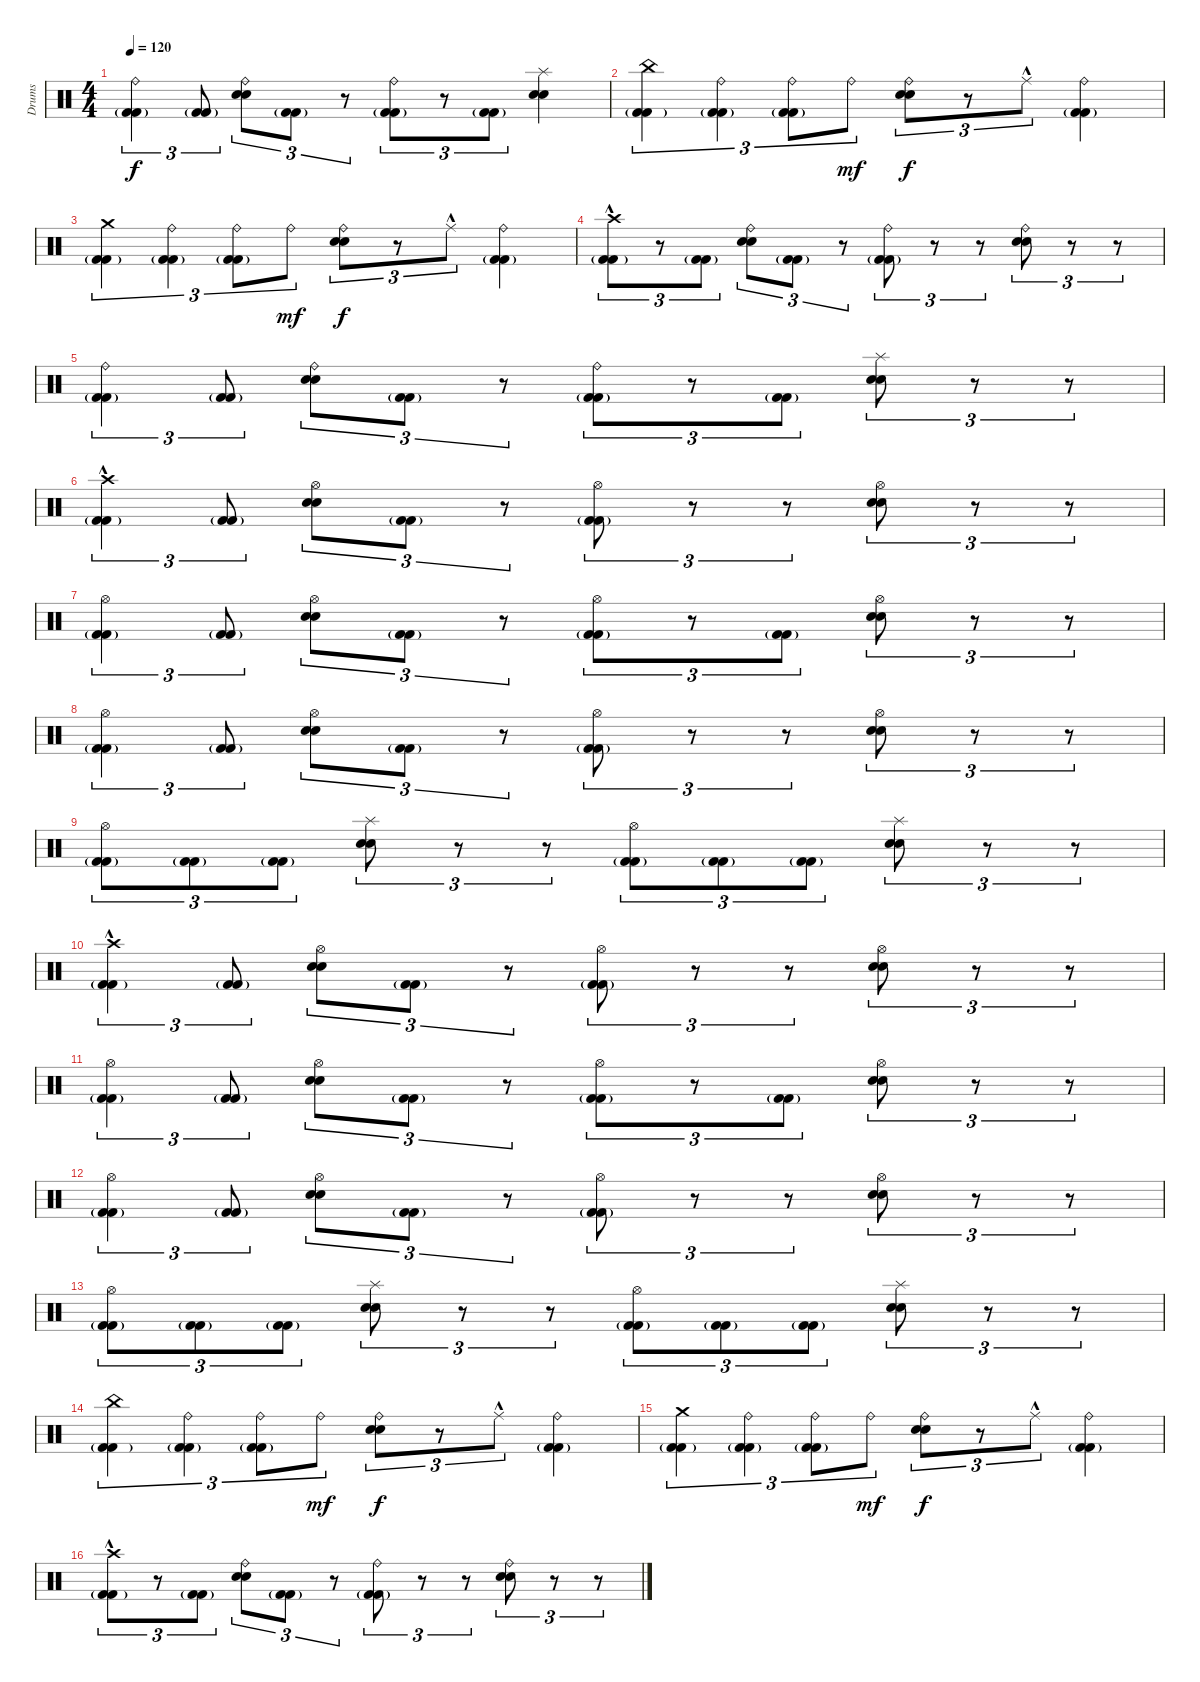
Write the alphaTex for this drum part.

\track ("Drums" "Drums") {instrument percussion}
\staff {score}
\articulation defaults
\ts (4 4)
\tempo 120
\clef neutral
\ks c
("Ride (bell)" "Kick (hit) 2"{g} "Kick (hit) 2").4{tu (3 2) dy f} ("Kick (hit) 2"{g} "Kick (hit) 2").8{tu (3 2)} ("Ride (bell)" "Snare (hit)" "Electric Snare (hit)").8{tu (3 2)} ("Kick (hit) 2"{g} "Kick (hit) 2").8{tu (3 2)} r.8{tu (3 2)} ("Ride (bell)" "Kick (hit) 2"{g} "Kick (hit) 2").8{tu (3 2)} r.8{tu (3 2)} ("Kick (hit) 2"{g} "Kick (hit) 2").8{tu (3 2)} ("Splash (hit)" "Snare (hit)" "Electric Snare (hit)").4 |
("China (hit)" "Kick (hit) 2"{g} "Kick (hit) 2").4{tu (3 2)} ("Ride (bell)" "Kick (hit) 2"{g} "Kick (hit) 2").4{tu (3 2)} ("Ride (bell)" "Kick (hit) 2"{g} "Kick (hit) 2").8{tu (3 2)} "Ride (bell)".8{tu (3 2) dy mf} ("Ride (bell)" "Snare (hit)" "Electric Snare (hit)").8{tu (3 2) dy f} r.8{tu (3 2)} "Ride (middle)"{hac}.8{tu (3 2)} ("Ride (bell)" "Kick (hit) 2"{g} "Kick (hit) 2").4 |
("Crash medium (hit)" "Kick (hit) 2"{g} "Kick (hit) 2").4{tu (3 2)} ("Ride (bell)" "Kick (hit) 2"{g} "Kick (hit) 2").4{tu (3 2)} ("Ride (bell)" "Kick (hit) 2"{g} "Kick (hit) 2").8{tu (3 2)} "Ride (bell)".8{tu (3 2) dy mf} ("Ride (bell)" "Snare (hit)" "Electric Snare (hit)").8{tu (3 2) dy f} r.8{tu (3 2)} "Ride (middle)"{hac}.8{tu (3 2)} ("Ride (bell)" "Kick (hit) 2"{g} "Kick (hit) 2").4 |
("Crash high (hit)"{hac} "Kick (hit) 2"{g} "Kick (hit) 2").8{tu (3 2)} r.8{tu (3 2)} ("Kick (hit) 2"{g} "Kick (hit) 2").8{tu (3 2)} ("Ride (bell)" "Snare (hit)" "Electric Snare (hit)").8{tu (3 2)} ("Kick (hit) 2"{g} "Kick (hit) 2").8{tu (3 2)} r.8{tu (3 2)} ("Ride (bell)" "Kick (hit) 2"{g} "Kick (hit) 2").8{tu (3 2)} r.8{tu (3 2)} r.8{tu (3 2)} ("Ride (bell)" "Snare (hit)" "Electric Snare (hit)").8{tu (3 2)} r.8{tu (3 2)} r.8{tu (3 2)} |
("Ride (bell)" "Kick (hit) 2"{g} "Kick (hit) 2").4{tu (3 2)} ("Kick (hit) 2"{g} "Kick (hit) 2").8{tu (3 2)} ("Ride (bell)" "Snare (hit)" "Electric Snare (hit)").8{tu (3 2)} ("Kick (hit) 2"{g} "Kick (hit) 2").8{tu (3 2)} r.8{tu (3 2)} ("Ride (bell)" "Kick (hit) 2"{g} "Kick (hit) 2").8{tu (3 2)} r.8{tu (3 2)} ("Kick (hit) 2"{g} "Kick (hit) 2").8{tu (3 2)} ("Splash (hit)" "Snare (hit)" "Electric Snare (hit)").8{tu (3 2)} r.8{tu (3 2)} r.8{tu (3 2)} |
("Crash high (hit)"{hac} "Kick (hit) 2"{g} "Kick (hit) 2").4{tu (3 2)} ("Kick (hit) 2"{g} "Kick (hit) 2").8{tu (3 2)} ("Hi-Hat (open)" "Snare (hit)" "Electric Snare (hit)").8{tu (3 2)} ("Kick (hit) 2"{g} "Kick (hit) 2").8{tu (3 2)} r.8{tu (3 2)} ("Hi-Hat (open)" "Kick (hit) 2"{g} "Kick (hit) 2").8{tu (3 2)} r.8{tu (3 2)} r.8{tu (3 2)} ("Hi-Hat (open)" "Snare (hit)" "Electric Snare (hit)").8{tu (3 2)} r.8{tu (3 2)} r.8{tu (3 2)} |
("Hi-Hat (open)" "Kick (hit) 2"{g} "Kick (hit) 2").4{tu (3 2)} ("Kick (hit) 2"{g} "Kick (hit) 2").8{tu (3 2)} ("Hi-Hat (open)" "Snare (hit)" "Electric Snare (hit)").8{tu (3 2)} ("Kick (hit) 2"{g} "Kick (hit) 2").8{tu (3 2)} r.8{tu (3 2)} ("Hi-Hat (open)" "Kick (hit) 2"{g} "Kick (hit) 2").8{tu (3 2)} r.8{tu (3 2)} ("Kick (hit) 2"{g} "Kick (hit) 2").8{tu (3 2)} ("Hi-Hat (open)" "Snare (hit)" "Electric Snare (hit)").8{tu (3 2)} r.8{tu (3 2)} r.8{tu (3 2)} |
("Hi-Hat (open)" "Kick (hit) 2"{g} "Kick (hit) 2").4{tu (3 2)} ("Kick (hit) 2"{g} "Kick (hit) 2").8{tu (3 2)} ("Hi-Hat (open)" "Snare (hit)" "Electric Snare (hit)").8{tu (3 2)} ("Kick (hit) 2"{g} "Kick (hit) 2").8{tu (3 2)} r.8{tu (3 2)} ("Hi-Hat (open)" "Kick (hit) 2"{g} "Kick (hit) 2").8{tu (3 2)} r.8{tu (3 2)} r.8{tu (3 2)} ("Hi-Hat (open)" "Snare (hit)" "Electric Snare (hit)").8{tu (3 2)} r.8{tu (3 2)} r.8{tu (3 2)} |
("Hi-Hat (open)" "Kick (hit) 2"{g} "Kick (hit) 2").8{tu (3 2)} ("Kick (hit) 2"{g} "Kick (hit) 2").8{tu (3 2)} ("Kick (hit) 2"{g} "Kick (hit) 2").8{tu (3 2)} ("Splash (hit)" "Snare (hit)" "Electric Snare (hit)").8{tu (3 2)} r.8{tu (3 2)} r.8{tu (3 2)} ("Hi-Hat (open)" "Kick (hit) 2"{g} "Kick (hit) 2").8{tu (3 2)} ("Kick (hit) 2"{g} "Kick (hit) 2").8{tu (3 2)} ("Kick (hit) 2"{g} "Kick (hit) 2").8{tu (3 2)} ("Splash (hit)" "Snare (hit)" "Electric Snare (hit)").8{tu (3 2)} r.8{tu (3 2)} r.8{tu (3 2)} |
("Crash high (hit)"{hac} "Kick (hit) 2"{g} "Kick (hit) 2").4{tu (3 2)} ("Kick (hit) 2"{g} "Kick (hit) 2").8{tu (3 2)} ("Hi-Hat (open)" "Snare (hit)" "Electric Snare (hit)").8{tu (3 2)} ("Kick (hit) 2"{g} "Kick (hit) 2").8{tu (3 2)} r.8{tu (3 2)} ("Hi-Hat (open)" "Kick (hit) 2"{g} "Kick (hit) 2").8{tu (3 2)} r.8{tu (3 2)} r.8{tu (3 2)} ("Hi-Hat (open)" "Snare (hit)" "Electric Snare (hit)").8{tu (3 2)} r.8{tu (3 2)} r.8{tu (3 2)} |
("Hi-Hat (open)" "Kick (hit) 2"{g} "Kick (hit) 2").4{tu (3 2)} ("Kick (hit) 2"{g} "Kick (hit) 2").8{tu (3 2)} ("Hi-Hat (open)" "Snare (hit)" "Electric Snare (hit)").8{tu (3 2)} ("Kick (hit) 2"{g} "Kick (hit) 2").8{tu (3 2)} r.8{tu (3 2)} ("Hi-Hat (open)" "Kick (hit) 2"{g} "Kick (hit) 2").8{tu (3 2)} r.8{tu (3 2)} ("Kick (hit) 2"{g} "Kick (hit) 2").8{tu (3 2)} ("Hi-Hat (open)" "Snare (hit)" "Electric Snare (hit)").8{tu (3 2)} r.8{tu (3 2)} r.8{tu (3 2)} |
("Hi-Hat (open)" "Kick (hit) 2"{g} "Kick (hit) 2").4{tu (3 2)} ("Kick (hit) 2"{g} "Kick (hit) 2").8{tu (3 2)} ("Hi-Hat (open)" "Snare (hit)" "Electric Snare (hit)").8{tu (3 2)} ("Kick (hit) 2"{g} "Kick (hit) 2").8{tu (3 2)} r.8{tu (3 2)} ("Hi-Hat (open)" "Kick (hit) 2"{g} "Kick (hit) 2").8{tu (3 2)} r.8{tu (3 2)} r.8{tu (3 2)} ("Hi-Hat (open)" "Snare (hit)" "Electric Snare (hit)").8{tu (3 2)} r.8{tu (3 2)} r.8{tu (3 2)} |
("Hi-Hat (open)" "Kick (hit) 2"{g} "Kick (hit) 2").8{tu (3 2)} ("Kick (hit) 2"{g} "Kick (hit) 2").8{tu (3 2)} ("Kick (hit) 2"{g} "Kick (hit) 2").8{tu (3 2)} ("Splash (hit)" "Snare (hit)" "Electric Snare (hit)").8{tu (3 2)} r.8{tu (3 2)} r.8{tu (3 2)} ("Hi-Hat (open)" "Kick (hit) 2"{g} "Kick (hit) 2").8{tu (3 2)} ("Kick (hit) 2"{g} "Kick (hit) 2").8{tu (3 2)} ("Kick (hit) 2"{g} "Kick (hit) 2").8{tu (3 2)} ("Splash (hit)" "Snare (hit)" "Electric Snare (hit)").8{tu (3 2)} r.8{tu (3 2)} r.8{tu (3 2)} |
("China (hit)" "Kick (hit) 2"{g} "Kick (hit) 2").4{tu (3 2)} ("Ride (bell)" "Kick (hit) 2"{g} "Kick (hit) 2").4{tu (3 2)} ("Ride (bell)" "Kick (hit) 2"{g} "Kick (hit) 2").8{tu (3 2)} "Ride (bell)".8{tu (3 2) dy mf} ("Ride (bell)" "Snare (hit)" "Electric Snare (hit)").8{tu (3 2) dy f} r.8{tu (3 2)} "Ride (middle)"{hac}.8{tu (3 2)} ("Ride (bell)" "Kick (hit) 2"{g} "Kick (hit) 2").4 |
("Crash medium (hit)" "Kick (hit) 2"{g} "Kick (hit) 2").4{tu (3 2)} ("Ride (bell)" "Kick (hit) 2"{g} "Kick (hit) 2").4{tu (3 2)} ("Ride (bell)" "Kick (hit) 2"{g} "Kick (hit) 2").8{tu (3 2)} "Ride (bell)".8{tu (3 2) dy mf} ("Ride (bell)" "Snare (hit)" "Electric Snare (hit)").8{tu (3 2) dy f} r.8{tu (3 2)} "Ride (middle)"{hac}.8{tu (3 2)} ("Ride (bell)" "Kick (hit) 2"{g} "Kick (hit) 2").4 |
("Crash high (hit)"{hac} "Kick (hit) 2"{g} "Kick (hit) 2").8{tu (3 2)} r.8{tu (3 2)} ("Kick (hit) 2"{g} "Kick (hit) 2").8{tu (3 2)} ("Ride (bell)" "Snare (hit)" "Electric Snare (hit)").8{tu (3 2)} ("Kick (hit) 2"{g} "Kick (hit) 2").8{tu (3 2)} r.8{tu (3 2)} ("Ride (bell)" "Kick (hit) 2"{g} "Kick (hit) 2").8{tu (3 2)} r.8{tu (3 2)} r.8{tu (3 2)} ("Ride (bell)" "Snare (hit)" "Electric Snare (hit)").8{tu (3 2)} r.8{tu (3 2)} r.8{tu (3 2)}
